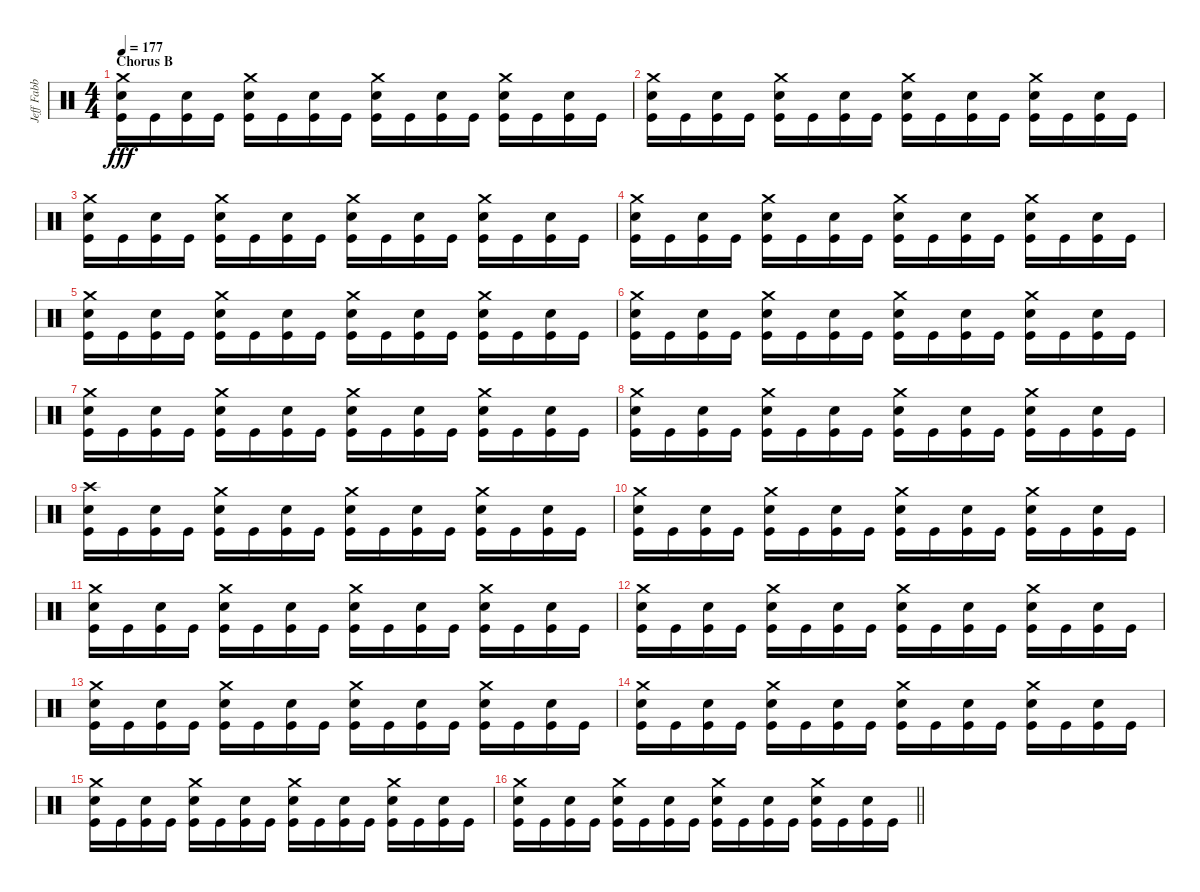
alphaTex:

\track ("Jeff Fabb (Drums)" "Jeff Fabb ") {instrument percussion}
\staff {score}
\articulation defaults
\ts (4 4)
\section ("" "Chorus B")
\tempo 177
\clef neutral
\ks c
("Crash medium (hit)" "Electric Snare (hit)" "Kick (hit)").16{dy fff} "Kick (hit)".16 ("Electric Snare (hit)" "Kick (hit)").16 "Kick (hit)".16 ("Crash medium (hit)" "Electric Snare (hit)" "Kick (hit)").16 "Kick (hit)".16 ("Electric Snare (hit)" "Kick (hit)").16 "Kick (hit)".16 ("Crash medium (hit)" "Electric Snare (hit)" "Kick (hit)").16 "Kick (hit)".16 ("Electric Snare (hit)" "Kick (hit)").16 "Kick (hit)".16 ("Crash medium (hit)" "Electric Snare (hit)" "Kick (hit)").16 "Kick (hit)".16 ("Electric Snare (hit)" "Kick (hit)").16 "Kick (hit)".16 |
("Crash medium (hit)" "Electric Snare (hit)" "Kick (hit)").16 "Kick (hit)".16 ("Electric Snare (hit)" "Kick (hit)").16 "Kick (hit)".16 ("Crash medium (hit)" "Electric Snare (hit)" "Kick (hit)").16 "Kick (hit)".16 ("Electric Snare (hit)" "Kick (hit)").16 "Kick (hit)".16 ("Crash medium (hit)" "Electric Snare (hit)" "Kick (hit)").16 "Kick (hit)".16 ("Electric Snare (hit)" "Kick (hit)").16 "Kick (hit)".16 ("Crash medium (hit)" "Electric Snare (hit)" "Kick (hit)").16 "Kick (hit)".16 ("Electric Snare (hit)" "Kick (hit)").16 "Kick (hit)".16 |
("Crash medium (hit)" "Electric Snare (hit)" "Kick (hit)").16 "Kick (hit)".16 ("Electric Snare (hit)" "Kick (hit)").16 "Kick (hit)".16 ("Crash medium (hit)" "Electric Snare (hit)" "Kick (hit)").16 "Kick (hit)".16 ("Electric Snare (hit)" "Kick (hit)").16 "Kick (hit)".16 ("Crash medium (hit)" "Electric Snare (hit)" "Kick (hit)").16 "Kick (hit)".16 ("Electric Snare (hit)" "Kick (hit)").16 "Kick (hit)".16 ("Crash medium (hit)" "Electric Snare (hit)" "Kick (hit)").16 "Kick (hit)".16 ("Electric Snare (hit)" "Kick (hit)").16 "Kick (hit)".16 |
("Crash medium (hit)" "Electric Snare (hit)" "Kick (hit)").16 "Kick (hit)".16 ("Electric Snare (hit)" "Kick (hit)").16 "Kick (hit)".16 ("Crash medium (hit)" "Electric Snare (hit)" "Kick (hit)").16 "Kick (hit)".16 ("Electric Snare (hit)" "Kick (hit)").16 "Kick (hit)".16 ("Crash medium (hit)" "Electric Snare (hit)" "Kick (hit)").16 "Kick (hit)".16 ("Electric Snare (hit)" "Kick (hit)").16 "Kick (hit)".16 ("Crash medium (hit)" "Electric Snare (hit)" "Kick (hit)").16 "Kick (hit)".16 ("Electric Snare (hit)" "Kick (hit)").16 "Kick (hit)".16 |
("Crash medium (hit)" "Electric Snare (hit)" "Kick (hit)").16 "Kick (hit)".16 ("Electric Snare (hit)" "Kick (hit)").16 "Kick (hit)".16 ("Crash medium (hit)" "Electric Snare (hit)" "Kick (hit)").16 "Kick (hit)".16 ("Electric Snare (hit)" "Kick (hit)").16 "Kick (hit)".16 ("Crash medium (hit)" "Electric Snare (hit)" "Kick (hit)").16 "Kick (hit)".16 ("Electric Snare (hit)" "Kick (hit)").16 "Kick (hit)".16 ("Crash medium (hit)" "Electric Snare (hit)" "Kick (hit)").16 "Kick (hit)".16 ("Electric Snare (hit)" "Kick (hit)").16 "Kick (hit)".16 |
("Crash medium (hit)" "Electric Snare (hit)" "Kick (hit)").16 "Kick (hit)".16 ("Electric Snare (hit)" "Kick (hit)").16 "Kick (hit)".16 ("Crash medium (hit)" "Electric Snare (hit)" "Kick (hit)").16 "Kick (hit)".16 ("Electric Snare (hit)" "Kick (hit)").16 "Kick (hit)".16 ("Crash medium (hit)" "Electric Snare (hit)" "Kick (hit)").16 "Kick (hit)".16 ("Electric Snare (hit)" "Kick (hit)").16 "Kick (hit)".16 ("Crash medium (hit)" "Electric Snare (hit)" "Kick (hit)").16 "Kick (hit)".16 ("Electric Snare (hit)" "Kick (hit)").16 "Kick (hit)".16 |
("Crash medium (hit)" "Electric Snare (hit)" "Kick (hit)").16 "Kick (hit)".16 ("Electric Snare (hit)" "Kick (hit)").16 "Kick (hit)".16 ("Crash medium (hit)" "Electric Snare (hit)" "Kick (hit)").16 "Kick (hit)".16 ("Electric Snare (hit)" "Kick (hit)").16 "Kick (hit)".16 ("Crash medium (hit)" "Electric Snare (hit)" "Kick (hit)").16 "Kick (hit)".16 ("Electric Snare (hit)" "Kick (hit)").16 "Kick (hit)".16 ("Crash medium (hit)" "Electric Snare (hit)" "Kick (hit)").16 "Kick (hit)".16 ("Electric Snare (hit)" "Kick (hit)").16 "Kick (hit)".16 |
("Crash medium (hit)" "Electric Snare (hit)" "Kick (hit)").16 "Kick (hit)".16 ("Electric Snare (hit)" "Kick (hit)").16 "Kick (hit)".16 ("Crash medium (hit)" "Electric Snare (hit)" "Kick (hit)").16 "Kick (hit)".16 ("Electric Snare (hit)" "Kick (hit)").16 "Kick (hit)".16 ("Crash medium (hit)" "Electric Snare (hit)" "Kick (hit)").16 "Kick (hit)".16 ("Electric Snare (hit)" "Kick (hit)").16 "Kick (hit)".16 ("Crash medium (hit)" "Electric Snare (hit)" "Kick (hit)").16 "Kick (hit)".16 ("Electric Snare (hit)" "Kick (hit)").16 "Kick (hit)".16 |
("Crash high (hit)" "Electric Snare (hit)" "Kick (hit)").16 "Kick (hit)".16 ("Electric Snare (hit)" "Kick (hit)").16 "Kick (hit)".16 ("Crash medium (hit)" "Electric Snare (hit)" "Kick (hit)").16 "Kick (hit)".16 ("Electric Snare (hit)" "Kick (hit)").16 "Kick (hit)".16 ("Crash medium (hit)" "Electric Snare (hit)" "Kick (hit)").16 "Kick (hit)".16 ("Electric Snare (hit)" "Kick (hit)").16 "Kick (hit)".16 ("Crash medium (hit)" "Electric Snare (hit)" "Kick (hit)").16 "Kick (hit)".16 ("Electric Snare (hit)" "Kick (hit)").16 "Kick (hit)".16 |
("Crash medium (hit)" "Electric Snare (hit)" "Kick (hit)").16 "Kick (hit)".16 ("Electric Snare (hit)" "Kick (hit)").16 "Kick (hit)".16 ("Crash medium (hit)" "Electric Snare (hit)" "Kick (hit)").16 "Kick (hit)".16 ("Electric Snare (hit)" "Kick (hit)").16 "Kick (hit)".16 ("Crash medium (hit)" "Electric Snare (hit)" "Kick (hit)").16 "Kick (hit)".16 ("Electric Snare (hit)" "Kick (hit)").16 "Kick (hit)".16 ("Crash medium (hit)" "Electric Snare (hit)" "Kick (hit)").16 "Kick (hit)".16 ("Electric Snare (hit)" "Kick (hit)").16 "Kick (hit)".16 |
("Crash medium (hit)" "Electric Snare (hit)" "Kick (hit)").16 "Kick (hit)".16 ("Electric Snare (hit)" "Kick (hit)").16 "Kick (hit)".16 ("Crash medium (hit)" "Electric Snare (hit)" "Kick (hit)").16 "Kick (hit)".16 ("Electric Snare (hit)" "Kick (hit)").16 "Kick (hit)".16 ("Crash medium (hit)" "Electric Snare (hit)" "Kick (hit)").16 "Kick (hit)".16 ("Electric Snare (hit)" "Kick (hit)").16 "Kick (hit)".16 ("Crash medium (hit)" "Electric Snare (hit)" "Kick (hit)").16 "Kick (hit)".16 ("Electric Snare (hit)" "Kick (hit)").16 "Kick (hit)".16 |
("Crash medium (hit)" "Electric Snare (hit)" "Kick (hit)").16 "Kick (hit)".16 ("Electric Snare (hit)" "Kick (hit)").16 "Kick (hit)".16 ("Crash medium (hit)" "Electric Snare (hit)" "Kick (hit)").16 "Kick (hit)".16 ("Electric Snare (hit)" "Kick (hit)").16 "Kick (hit)".16 ("Crash medium (hit)" "Electric Snare (hit)" "Kick (hit)").16 "Kick (hit)".16 ("Electric Snare (hit)" "Kick (hit)").16 "Kick (hit)".16 ("Crash medium (hit)" "Electric Snare (hit)" "Kick (hit)").16 "Kick (hit)".16 ("Electric Snare (hit)" "Kick (hit)").16 "Kick (hit)".16 |
("Crash medium (hit)" "Electric Snare (hit)" "Kick (hit)").16 "Kick (hit)".16 ("Electric Snare (hit)" "Kick (hit)").16 "Kick (hit)".16 ("Crash medium (hit)" "Electric Snare (hit)" "Kick (hit)").16 "Kick (hit)".16 ("Electric Snare (hit)" "Kick (hit)").16 "Kick (hit)".16 ("Crash medium (hit)" "Electric Snare (hit)" "Kick (hit)").16 "Kick (hit)".16 ("Electric Snare (hit)" "Kick (hit)").16 "Kick (hit)".16 ("Crash medium (hit)" "Electric Snare (hit)" "Kick (hit)").16 "Kick (hit)".16 ("Electric Snare (hit)" "Kick (hit)").16 "Kick (hit)".16 |
("Crash medium (hit)" "Electric Snare (hit)" "Kick (hit)").16 "Kick (hit)".16 ("Electric Snare (hit)" "Kick (hit)").16 "Kick (hit)".16 ("Crash medium (hit)" "Electric Snare (hit)" "Kick (hit)").16 "Kick (hit)".16 ("Electric Snare (hit)" "Kick (hit)").16 "Kick (hit)".16 ("Crash medium (hit)" "Electric Snare (hit)" "Kick (hit)").16 "Kick (hit)".16 ("Electric Snare (hit)" "Kick (hit)").16 "Kick (hit)".16 ("Crash medium (hit)" "Electric Snare (hit)" "Kick (hit)").16 "Kick (hit)".16 ("Electric Snare (hit)" "Kick (hit)").16 "Kick (hit)".16 |
("Crash medium (hit)" "Electric Snare (hit)" "Kick (hit)").16 "Kick (hit)".16 ("Electric Snare (hit)" "Kick (hit)").16 "Kick (hit)".16 ("Crash medium (hit)" "Electric Snare (hit)" "Kick (hit)").16 "Kick (hit)".16 ("Electric Snare (hit)" "Kick (hit)").16 "Kick (hit)".16 ("Crash medium (hit)" "Electric Snare (hit)" "Kick (hit)").16 "Kick (hit)".16 ("Electric Snare (hit)" "Kick (hit)").16 "Kick (hit)".16 ("Crash medium (hit)" "Electric Snare (hit)" "Kick (hit)").16 "Kick (hit)".16 ("Electric Snare (hit)" "Kick (hit)").16 "Kick (hit)".16 |
\barLineRight lightlight
("Crash medium (hit)" "Electric Snare (hit)" "Kick (hit)").16 "Kick (hit)".16 ("Electric Snare (hit)" "Kick (hit)").16 "Kick (hit)".16 ("Crash medium (hit)" "Electric Snare (hit)" "Kick (hit)").16 "Kick (hit)".16 ("Electric Snare (hit)" "Kick (hit)").16 "Kick (hit)".16 ("Crash medium (hit)" "Electric Snare (hit)" "Kick (hit)").16 "Kick (hit)".16 ("Electric Snare (hit)" "Kick (hit)").16 "Kick (hit)".16 ("Crash medium (hit)" "Electric Snare (hit)" "Kick (hit)").16 "Kick (hit)".16 ("Electric Snare (hit)" "Kick (hit)").16 "Kick (hit)".16
